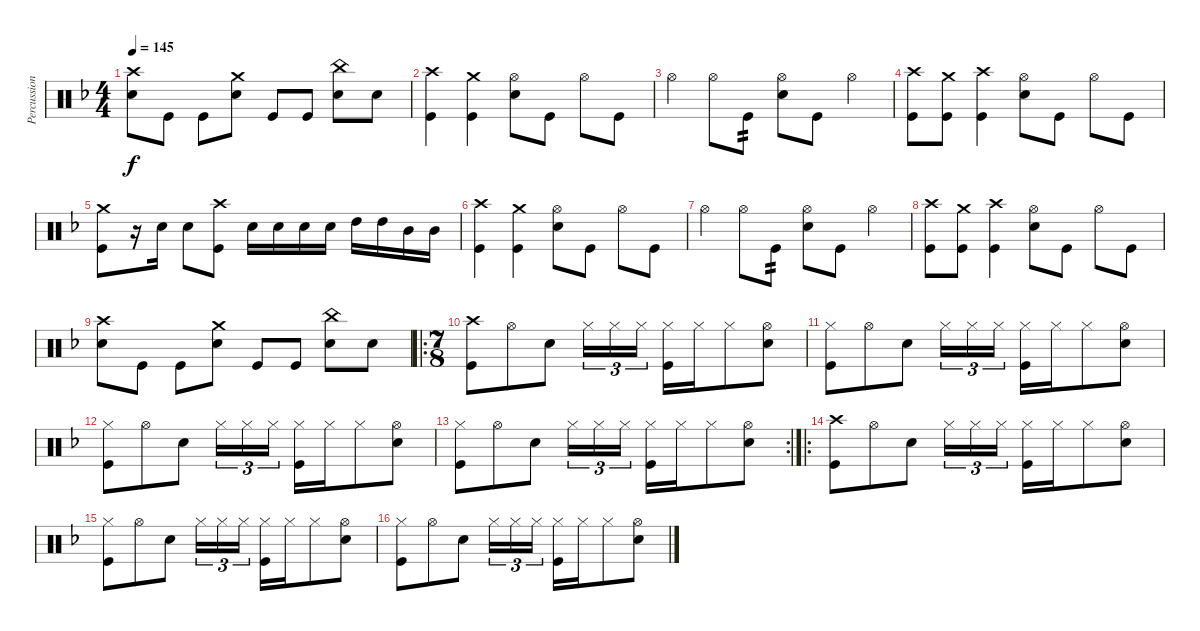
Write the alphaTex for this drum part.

\track ("Percussion" "Percussion") {instrument percussion}
\staff {score}
\articulation defaults
\ts (4 4)
\tempo 145
\clef neutral
\ks f
("Crash high (hit)" "Electric Snare (hit)").8{dy f} "Kick (hit)".8 "Kick (hit)".8 ("Crash medium (hit)" "Electric Snare (hit)").8 "Kick (hit)".8 "Kick (hit)".8 ("China (hit)" "Electric Snare (hit)").8 "Electric Snare (hit)".8 |
("Crash high (hit)" "Kick (hit)").4 ("Crash medium (hit)" "Kick (hit)").4 ("Hi-Hat (open)" "Electric Snare (hit)").8 "Kick (hit)".8 "Hi-Hat (open)".8 "Kick (hit)".8 |
"Hi-Hat (open)".4 "Hi-Hat (open)".8 "Kick (hit)".8{tp 2} ("Hi-Hat (open)" "Electric Snare (hit)").8 "Kick (hit)".8 "Hi-Hat (open)".4 |
("Crash high (hit)" "Kick (hit)").8 ("Crash medium (hit)" "Kick (hit)").8 ("Crash high (hit)" "Kick (hit)").4 ("Hi-Hat (open)" "Electric Snare (hit)").8 "Kick (hit)".8 "Hi-Hat (open)".8 "Kick (hit)".8 |
("Crash medium (hit)" "Kick (hit)").8 r.16 "Electric Snare (hit)".16 "Electric Snare (hit)".8 ("Crash high (hit)" "Kick (hit)").8 "Electric Snare (hit)".16 "Electric Snare (hit)".16 "Electric Snare (hit)".16 "Electric Snare (hit)".16 "High Tom (hit)".16 "High Tom (hit)".16 "Mid Tom (hit)".16 "Mid Tom (hit)".16 |
("Crash high (hit)" "Kick (hit)").4 ("Crash medium (hit)" "Kick (hit)").4 ("Hi-Hat (open)" "Electric Snare (hit)").8 "Kick (hit)".8 "Hi-Hat (open)".8 "Kick (hit)".8 |
"Hi-Hat (open)".4 "Hi-Hat (open)".8 "Kick (hit)".8{tp 2} ("Hi-Hat (open)" "Electric Snare (hit)").8 "Kick (hit)".8 "Hi-Hat (open)".4 |
("Crash high (hit)" "Kick (hit)").8 ("Crash medium (hit)" "Kick (hit)").8 ("Crash high (hit)" "Kick (hit)").4 ("Hi-Hat (open)" "Electric Snare (hit)").8 "Kick (hit)".8 "Hi-Hat (open)".8 "Kick (hit)".8 |
("Crash high (hit)" "Electric Snare (hit)").8 "Kick (hit)".8 "Kick (hit)".8 ("Crash medium (hit)" "Electric Snare (hit)").8 "Kick (hit)".8 "Kick (hit)".8 ("China (hit)" "Electric Snare (hit)").8 "Electric Snare (hit)".8 |
\ro
\ts (7 8)
("Crash high (hit)" "Kick (hit)").8 "Hi-Hat (open)".8 "Electric Snare (hit)".8 "Hi-Hat (closed)".16{tu (3 2)} "Hi-Hat (closed)".16{tu (3 2)} "Hi-Hat (closed)".16{tu (3 2)} ("Hi-Hat (closed)" "Kick (hit)").16 "Hi-Hat (closed)".16 "Hi-Hat (closed)".8 ("Hi-Hat (open)" "Electric Snare (hit)").8 |
("Hi-Hat (closed)" "Kick (hit)").8 "Hi-Hat (open)".8 "Electric Snare (hit)".8 "Hi-Hat (closed)".16{tu (3 2)} "Hi-Hat (closed)".16{tu (3 2)} "Hi-Hat (closed)".16{tu (3 2)} ("Hi-Hat (closed)" "Kick (hit)").16 "Hi-Hat (closed)".16 "Hi-Hat (closed)".8 ("Hi-Hat (open)" "Electric Snare (hit)").8 |
("Hi-Hat (closed)" "Kick (hit)").8 "Hi-Hat (open)".8 "Electric Snare (hit)".8 "Hi-Hat (closed)".16{tu (3 2)} "Hi-Hat (closed)".16{tu (3 2)} "Hi-Hat (closed)".16{tu (3 2)} ("Hi-Hat (closed)" "Kick (hit)").16 "Hi-Hat (closed)".16 "Hi-Hat (closed)".8 ("Hi-Hat (open)" "Electric Snare (hit)").8 |
\rc 2
("Hi-Hat (closed)" "Kick (hit)").8 "Hi-Hat (open)".8 "Electric Snare (hit)".8 "Hi-Hat (closed)".16{tu (3 2)} "Hi-Hat (closed)".16{tu (3 2)} "Hi-Hat (closed)".16{tu (3 2)} ("Hi-Hat (closed)" "Kick (hit)").16 "Hi-Hat (closed)".16 "Hi-Hat (closed)".8 ("Hi-Hat (open)" "Electric Snare (hit)").8 |
\ro
("Crash high (hit)" "Kick (hit)").8 "Hi-Hat (open)".8 "Electric Snare (hit)".8 "Hi-Hat (closed)".16{tu (3 2)} "Hi-Hat (closed)".16{tu (3 2)} "Hi-Hat (closed)".16{tu (3 2)} ("Hi-Hat (closed)" "Kick (hit)").16 "Hi-Hat (closed)".16 "Hi-Hat (closed)".8 ("Hi-Hat (open)" "Electric Snare (hit)").8 |
("Hi-Hat (closed)" "Kick (hit)").8 "Hi-Hat (open)".8 "Electric Snare (hit)".8 "Hi-Hat (closed)".16{tu (3 2)} "Hi-Hat (closed)".16{tu (3 2)} "Hi-Hat (closed)".16{tu (3 2)} ("Hi-Hat (closed)" "Kick (hit)").16 "Hi-Hat (closed)".16 "Hi-Hat (closed)".8 ("Hi-Hat (open)" "Electric Snare (hit)").8 |
("Hi-Hat (closed)" "Kick (hit)").8 "Hi-Hat (open)".8 "Electric Snare (hit)".8 "Hi-Hat (closed)".16{tu (3 2)} "Hi-Hat (closed)".16{tu (3 2)} "Hi-Hat (closed)".16{tu (3 2)} ("Hi-Hat (closed)" "Kick (hit)").16 "Hi-Hat (closed)".16 "Hi-Hat (closed)".8 ("Hi-Hat (open)" "Electric Snare (hit)").8
